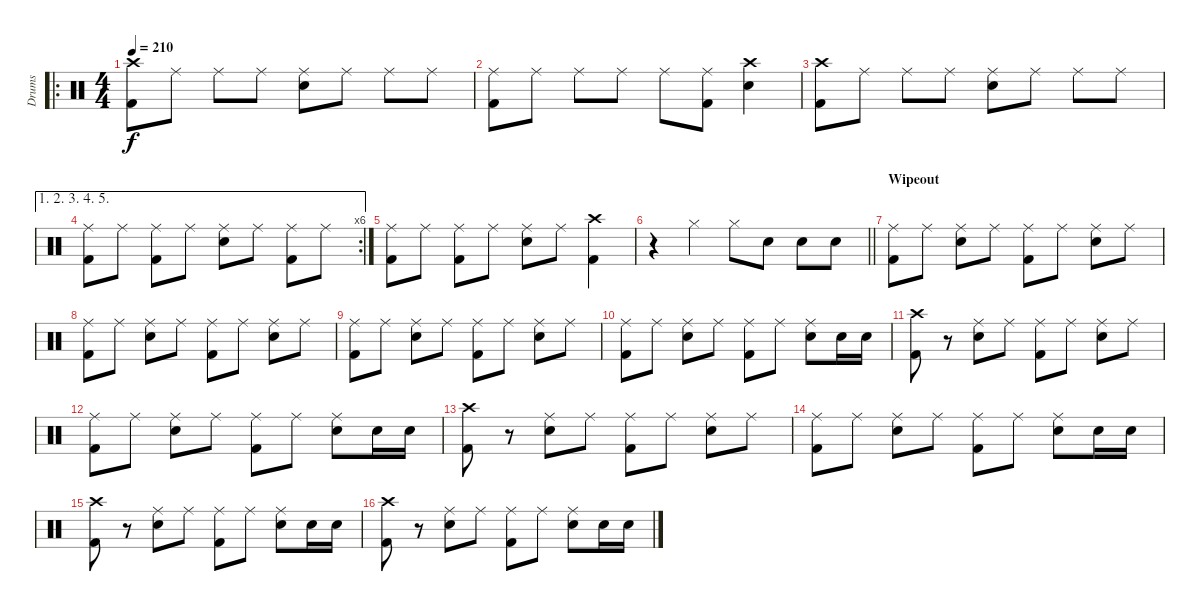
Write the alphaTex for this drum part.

\track ("Drums" "Drums") {instrument percussion}
\staff {score}
\articulation defaults
\ro
\ts (4 4)
\tempo 210
\clef neutral
\ks c
("Kick (hit) 2" "Crash high (hit)").8{dy f} "Ride (middle)".8 "Ride (middle)".8 "Ride (middle)".8 ("Electric Snare (hit)" "Ride (middle)").8 "Ride (middle)".8 "Ride (middle)".8 "Ride (middle)".8 |
("Kick (hit) 2" "Ride (middle)").8 "Ride (middle)".8 "Ride (middle)".8 "Ride (middle)".8 "Ride (middle)".8 ("Kick (hit) 2" "Ride (middle)").8 ("Electric Snare (hit)" "Crash high (hit)").4 |
("Kick (hit) 2" "Crash high (hit)").8 "Ride (middle)".8 "Ride (middle)".8 "Ride (middle)".8 ("Electric Snare (hit)" "Ride (middle)").8 "Ride (middle)".8 "Ride (middle)".8 "Ride (middle)".8 |
\ae (1 2 3 4 5)
\rc 6
("Kick (hit) 2" "Ride (middle)").8 "Ride (middle)".8 ("Kick (hit) 2" "Ride (middle)").8 "Ride (middle)".8 ("Electric Snare (hit)" "Ride (middle)").8 "Ride (middle)".8 ("Kick (hit) 2" "Ride (middle)").8 "Ride (middle)".8 |
("Kick (hit) 2" "Ride (middle)").8 "Ride (middle)".8 ("Kick (hit) 2" "Ride (middle)").8 "Ride (middle)".8 ("Electric Snare (hit)" "Ride (middle)").8 "Ride (middle)".8 ("Crash high (hit)" "Kick (hit) 2").4 |
\barLineRight lightlight
r.4 "Hi-Hat (closed)".4 "Hi-Hat (closed)".8 "Electric Snare (hit)".8 "Electric Snare (hit)".8 "Electric Snare (hit)".8 |
\section ("" "Wipeout")
("Kick (hit) 2" "Ride (middle)").8 "Ride (middle)".8 ("Electric Snare (hit)" "Ride (middle)").8 "Ride (middle)".8 ("Kick (hit) 2" "Ride (middle)").8 "Ride (middle)".8 ("Electric Snare (hit)" "Ride (middle)").8 "Ride (middle)".8 |
("Kick (hit) 2" "Ride (middle)").8 "Ride (middle)".8 ("Electric Snare (hit)" "Ride (middle)").8 "Ride (middle)".8 ("Kick (hit) 2" "Ride (middle)").8 "Ride (middle)".8 ("Electric Snare (hit)" "Ride (middle)").8 "Ride (middle)".8 |
("Kick (hit) 2" "Ride (middle)").8 "Ride (middle)".8 ("Electric Snare (hit)" "Ride (middle)").8 "Ride (middle)".8 ("Kick (hit) 2" "Ride (middle)").8 "Ride (middle)".8 ("Electric Snare (hit)" "Ride (middle)").8 "Ride (middle)".8 |
("Kick (hit) 2" "Ride (middle)").8 "Ride (middle)".8 ("Electric Snare (hit)" "Ride (middle)").8 "Ride (middle)".8 ("Kick (hit) 2" "Ride (middle)").8 "Ride (middle)".8 ("Electric Snare (hit)" "Ride (middle)").8 "Electric Snare (hit)".16 "Electric Snare (hit)".16 |
("Kick (hit) 2" "Crash high (hit)").8 r.8 ("Electric Snare (hit)" "Ride (middle)").8 "Ride (middle)".8 ("Kick (hit) 2" "Ride (middle)").8 "Ride (middle)".8 ("Electric Snare (hit)" "Ride (middle)").8 "Ride (middle)".8 |
("Kick (hit) 2" "Ride (middle)").8 "Ride (middle)".8 ("Electric Snare (hit)" "Ride (middle)").8 "Ride (middle)".8 ("Kick (hit) 2" "Ride (middle)").8 "Ride (middle)".8 ("Electric Snare (hit)" "Ride (middle)").8 "Electric Snare (hit)".16 "Electric Snare (hit)".16 |
("Kick (hit) 2" "Crash high (hit)").8 r.8 ("Electric Snare (hit)" "Ride (middle)").8 "Ride (middle)".8 ("Kick (hit) 2" "Ride (middle)").8 "Ride (middle)".8 ("Electric Snare (hit)" "Ride (middle)").8 "Ride (middle)".8 |
("Kick (hit) 2" "Ride (middle)").8 "Ride (middle)".8 ("Electric Snare (hit)" "Ride (middle)").8 "Ride (middle)".8 ("Kick (hit) 2" "Ride (middle)").8 "Ride (middle)".8 ("Electric Snare (hit)" "Ride (middle)").8 "Electric Snare (hit)".16 "Electric Snare (hit)".16 |
("Kick (hit) 2" "Crash high (hit)").8 r.8 ("Electric Snare (hit)" "Ride (middle)").8 "Ride (middle)".8 ("Kick (hit) 2" "Ride (middle)").8 "Ride (middle)".8 ("Electric Snare (hit)" "Ride (middle)").8 "Electric Snare (hit)".16 "Electric Snare (hit)".16 |
("Kick (hit) 2" "Crash high (hit)").8 r.8 ("Electric Snare (hit)" "Ride (middle)").8 "Ride (middle)".8 ("Kick (hit) 2" "Ride (middle)").8 "Ride (middle)".8 ("Electric Snare (hit)" "Ride (middle)").8 "Electric Snare (hit)".16 "Electric Snare (hit)".16
